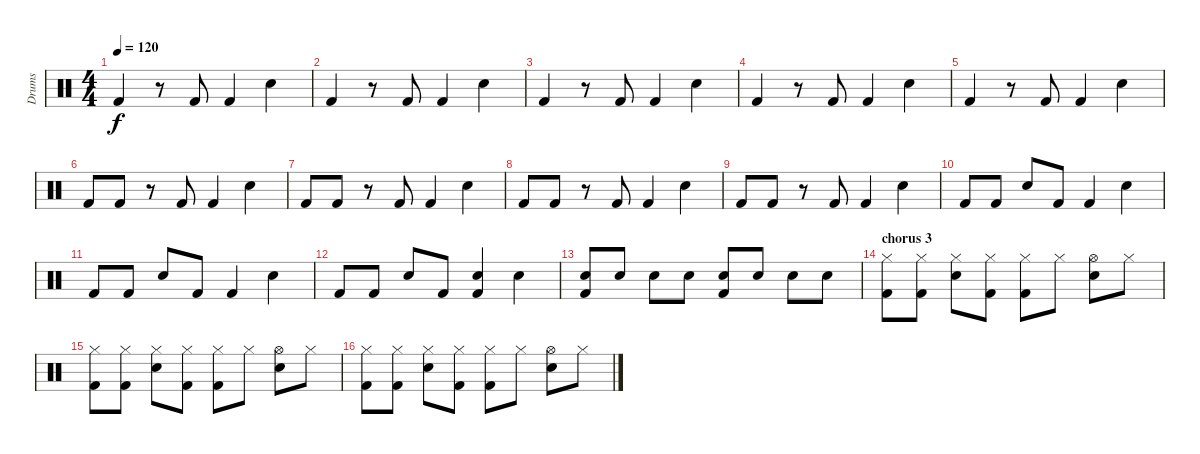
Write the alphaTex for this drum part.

\track ("Drums " "Drums ") {instrument percussion}
\staff {score}
\articulation defaults
\ts (4 4)
\tempo 120
\clef neutral
\ks c "Kick (hit) 2".4{dy f}
r.8 "Kick (hit) 2".8 "Kick (hit) 2".4 "Electric Snare (hit)".4 |
"Kick (hit) 2".4 r.8 "Kick (hit) 2".8 "Kick (hit) 2".4 "Electric Snare (hit)".4 |
"Kick (hit) 2".4 r.8 "Kick (hit) 2".8 "Kick (hit) 2".4 "Electric Snare (hit)".4 |
"Kick (hit) 2".4 r.8 "Kick (hit) 2".8 "Kick (hit) 2".4 "Electric Snare (hit)".4 |
"Kick (hit) 2".4 r.8 "Kick (hit) 2".8 "Kick (hit) 2".4 "Electric Snare (hit)".4 |
"Kick (hit) 2".8 "Kick (hit) 2".8 r.8 "Kick (hit) 2".8 "Kick (hit) 2".4 "Electric Snare (hit)".4 |
"Kick (hit) 2".8 "Kick (hit) 2".8 r.8 "Kick (hit) 2".8 "Kick (hit) 2".4 "Electric Snare (hit)".4 |
"Kick (hit) 2".8 "Kick (hit) 2".8 r.8 "Kick (hit) 2".8 "Kick (hit) 2".4 "Electric Snare (hit)".4 |
"Kick (hit) 2".8 "Kick (hit) 2".8 r.8 "Kick (hit) 2".8 "Kick (hit) 2".4 "Electric Snare (hit)".4 |
"Kick (hit) 2".8 "Kick (hit) 2".8 "Electric Snare (hit)".8 "Kick (hit) 2".8 "Kick (hit) 2".4 "Electric Snare (hit)".4 |
"Kick (hit) 2".8 "Kick (hit) 2".8 "Electric Snare (hit)".8 "Kick (hit) 2".8 "Kick (hit) 2".4 "Electric Snare (hit)".4 |
"Kick (hit) 2".8 "Kick (hit) 2".8 "Electric Snare (hit)".8 "Kick (hit) 2".8 ("Electric Snare (hit)" "Kick (hit) 2").4 "Electric Snare (hit)".4 |
("Electric Snare (hit)" "Kick (hit) 2").8 "Electric Snare (hit)".8 "Electric Snare (hit)".8 "Electric Snare (hit)".8 ("Electric Snare (hit)" "Kick (hit) 2").8 "Electric Snare (hit)".8 "Electric Snare (hit)".8 "Electric Snare (hit)".8 |
\section ("" "chorus 3")
("Kick (hit) 2" "Hi-Hat (closed)").8 ("Kick (hit) 2" "Hi-Hat (closed)").8 ("Electric Snare (hit)" "Hi-Hat (closed)").8 ("Kick (hit) 2" "Hi-Hat (closed)").8 ("Kick (hit) 2" "Hi-Hat (closed)").8 "Hi-Hat (closed)".8 ("Electric Snare (hit)" "Hi-Hat (open)").8 "Hi-Hat (closed)".8 |
("Kick (hit) 2" "Hi-Hat (closed)").8 ("Kick (hit) 2" "Hi-Hat (closed)").8 ("Electric Snare (hit)" "Hi-Hat (closed)").8 ("Kick (hit) 2" "Hi-Hat (closed)").8 ("Kick (hit) 2" "Hi-Hat (closed)").8 "Hi-Hat (closed)".8 ("Electric Snare (hit)" "Hi-Hat (open)").8 "Hi-Hat (closed)".8 |
("Kick (hit) 2" "Hi-Hat (closed)").8 ("Kick (hit) 2" "Hi-Hat (closed)").8 ("Electric Snare (hit)" "Hi-Hat (closed)").8 ("Kick (hit) 2" "Hi-Hat (closed)").8 ("Kick (hit) 2" "Hi-Hat (closed)").8 "Hi-Hat (closed)".8 ("Electric Snare (hit)" "Hi-Hat (open)").8 "Hi-Hat (closed)".8
